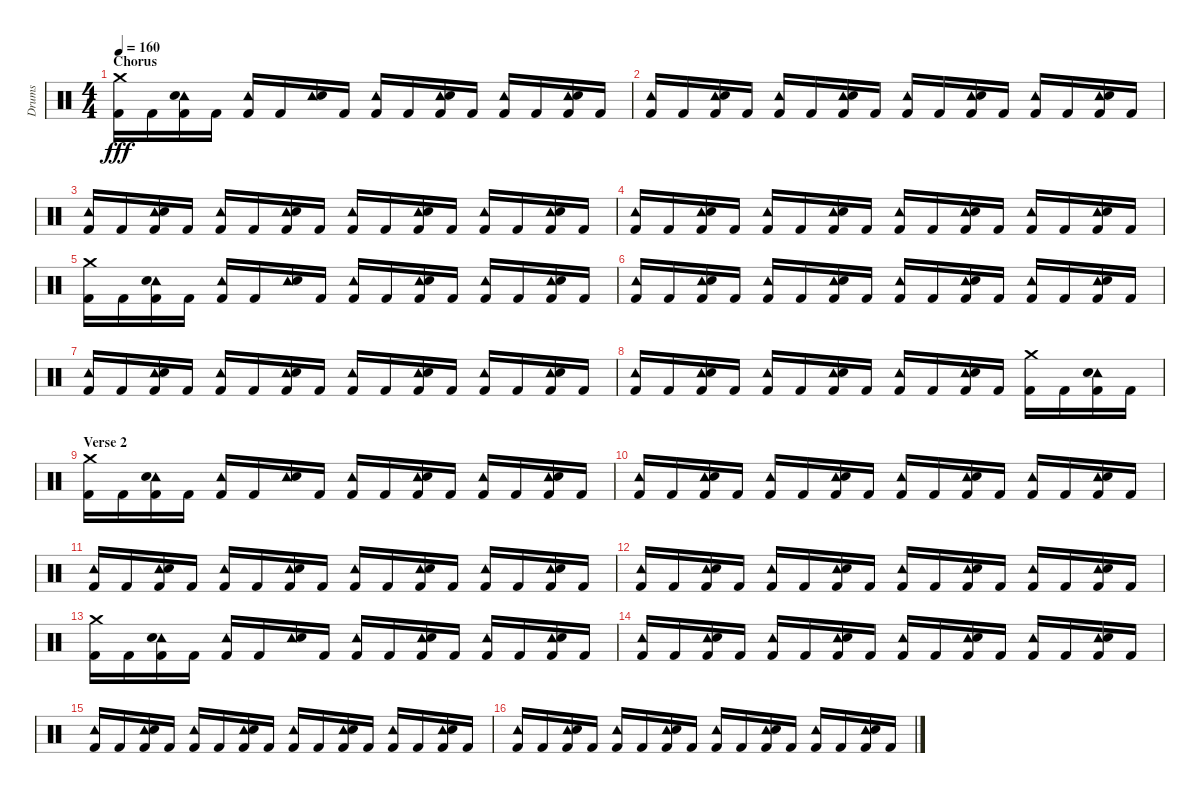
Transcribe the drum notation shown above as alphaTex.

\track ("Drums" "Drums") {instrument percussion}
\staff {score}
\articulation defaults
\ts (4 4)
\section ("" "Chorus")
\tempo 160
\clef neutral
\ks c
("Crash medium (hit)" "Kick (hit) 2").16{dy fff} "Kick (hit) 2".16 ("Kick (hit) 2" "Tambourine (hit)" "Electric Snare (hit)").16 "Kick (hit) 2".16 ("Kick (hit) 2" "Tambourine (hit)").16 "Kick (hit) 2".16 ("Tambourine (hit)" "Electric Snare (hit)").16 "Kick (hit) 2".16 ("Kick (hit) 2" "Tambourine (hit)").16 "Kick (hit) 2".16 ("Kick (hit) 2" "Tambourine (hit)" "Electric Snare (hit)").16 "Kick (hit) 2".16 ("Kick (hit) 2" "Tambourine (hit)").16 "Kick (hit) 2".16 ("Kick (hit) 2" "Tambourine (hit)" "Electric Snare (hit)").16 "Kick (hit) 2".16 |
("Kick (hit) 2" "Tambourine (hit)").16 "Kick (hit) 2".16 ("Kick (hit) 2" "Tambourine (hit)" "Electric Snare (hit)").16 "Kick (hit) 2".16 ("Kick (hit) 2" "Tambourine (hit)").16 "Kick (hit) 2".16 ("Kick (hit) 2" "Tambourine (hit)" "Electric Snare (hit)").16 "Kick (hit) 2".16 ("Kick (hit) 2" "Tambourine (hit)").16 "Kick (hit) 2".16 ("Kick (hit) 2" "Tambourine (hit)" "Electric Snare (hit)").16 "Kick (hit) 2".16 ("Kick (hit) 2" "Tambourine (hit)").16 "Kick (hit) 2".16 ("Kick (hit) 2" "Tambourine (hit)" "Electric Snare (hit)").16 "Kick (hit) 2".16 |
("Kick (hit) 2" "Tambourine (hit)").16 "Kick (hit) 2".16 ("Kick (hit) 2" "Tambourine (hit)" "Electric Snare (hit)").16 "Kick (hit) 2".16 ("Kick (hit) 2" "Tambourine (hit)").16 "Kick (hit) 2".16 ("Kick (hit) 2" "Tambourine (hit)" "Electric Snare (hit)").16 "Kick (hit) 2".16 ("Kick (hit) 2" "Tambourine (hit)").16 "Kick (hit) 2".16 ("Kick (hit) 2" "Tambourine (hit)" "Electric Snare (hit)").16 "Kick (hit) 2".16 ("Kick (hit) 2" "Tambourine (hit)").16 "Kick (hit) 2".16 ("Kick (hit) 2" "Tambourine (hit)" "Electric Snare (hit)").16 "Kick (hit) 2".16 |
("Kick (hit) 2" "Tambourine (hit)").16 "Kick (hit) 2".16 ("Kick (hit) 2" "Tambourine (hit)" "Electric Snare (hit)").16 "Kick (hit) 2".16 ("Kick (hit) 2" "Tambourine (hit)").16 "Kick (hit) 2".16 ("Kick (hit) 2" "Tambourine (hit)" "Electric Snare (hit)").16 "Kick (hit) 2".16 ("Kick (hit) 2" "Tambourine (hit)").16 "Kick (hit) 2".16 ("Kick (hit) 2" "Tambourine (hit)" "Electric Snare (hit)").16 "Kick (hit) 2".16 ("Kick (hit) 2" "Tambourine (hit)").16 "Kick (hit) 2".16 ("Kick (hit) 2" "Tambourine (hit)" "Electric Snare (hit)").16 "Kick (hit) 2".16 |
("Crash medium (hit)" "Kick (hit) 2").16 "Kick (hit) 2".16 ("Kick (hit) 2" "Tambourine (hit)" "Electric Snare (hit)").16 "Kick (hit) 2".16 ("Kick (hit) 2" "Tambourine (hit)").16 "Kick (hit) 2".16 ("Tambourine (hit)" "Electric Snare (hit)").16 "Kick (hit) 2".16 ("Kick (hit) 2" "Tambourine (hit)").16 "Kick (hit) 2".16 ("Kick (hit) 2" "Tambourine (hit)" "Electric Snare (hit)").16 "Kick (hit) 2".16 ("Kick (hit) 2" "Tambourine (hit)").16 "Kick (hit) 2".16 ("Kick (hit) 2" "Tambourine (hit)" "Electric Snare (hit)").16 "Kick (hit) 2".16 |
("Kick (hit) 2" "Tambourine (hit)").16 "Kick (hit) 2".16 ("Kick (hit) 2" "Tambourine (hit)" "Electric Snare (hit)").16 "Kick (hit) 2".16 ("Kick (hit) 2" "Tambourine (hit)").16 "Kick (hit) 2".16 ("Kick (hit) 2" "Tambourine (hit)" "Electric Snare (hit)").16 "Kick (hit) 2".16 ("Kick (hit) 2" "Tambourine (hit)").16 "Kick (hit) 2".16 ("Kick (hit) 2" "Tambourine (hit)" "Electric Snare (hit)").16 "Kick (hit) 2".16 ("Kick (hit) 2" "Tambourine (hit)").16 "Kick (hit) 2".16 ("Kick (hit) 2" "Tambourine (hit)" "Electric Snare (hit)").16 "Kick (hit) 2".16 |
("Kick (hit) 2" "Tambourine (hit)").16 "Kick (hit) 2".16 ("Kick (hit) 2" "Tambourine (hit)" "Electric Snare (hit)").16 "Kick (hit) 2".16 ("Kick (hit) 2" "Tambourine (hit)").16 "Kick (hit) 2".16 ("Kick (hit) 2" "Tambourine (hit)" "Electric Snare (hit)").16 "Kick (hit) 2".16 ("Kick (hit) 2" "Tambourine (hit)").16 "Kick (hit) 2".16 ("Kick (hit) 2" "Tambourine (hit)" "Electric Snare (hit)").16 "Kick (hit) 2".16 ("Kick (hit) 2" "Tambourine (hit)").16 "Kick (hit) 2".16 ("Kick (hit) 2" "Tambourine (hit)" "Electric Snare (hit)").16 "Kick (hit) 2".16 |
("Kick (hit) 2" "Tambourine (hit)").16 "Kick (hit) 2".16 ("Kick (hit) 2" "Tambourine (hit)" "Electric Snare (hit)").16 "Kick (hit) 2".16 ("Kick (hit) 2" "Tambourine (hit)").16 "Kick (hit) 2".16 ("Kick (hit) 2" "Tambourine (hit)" "Electric Snare (hit)").16 "Kick (hit) 2".16 ("Kick (hit) 2" "Tambourine (hit)").16 "Kick (hit) 2".16 ("Kick (hit) 2" "Tambourine (hit)" "Electric Snare (hit)").16 "Kick (hit) 2".16 ("Crash medium (hit)" "Kick (hit) 2").16 "Kick (hit) 2".16 ("Kick (hit) 2" "Tambourine (hit)" "Electric Snare (hit)").16 "Kick (hit) 2".16 |
\section ("" "Verse 2")
("Crash medium (hit)" "Kick (hit) 2").16 "Kick (hit) 2".16 ("Kick (hit) 2" "Tambourine (hit)" "Electric Snare (hit)").16 "Kick (hit) 2".16 ("Kick (hit) 2" "Tambourine (hit)").16 "Kick (hit) 2".16 ("Tambourine (hit)" "Electric Snare (hit)").16 "Kick (hit) 2".16 ("Kick (hit) 2" "Tambourine (hit)").16 "Kick (hit) 2".16 ("Kick (hit) 2" "Tambourine (hit)" "Electric Snare (hit)").16 "Kick (hit) 2".16 ("Kick (hit) 2" "Tambourine (hit)").16 "Kick (hit) 2".16 ("Kick (hit) 2" "Tambourine (hit)" "Electric Snare (hit)").16 "Kick (hit) 2".16 |
("Kick (hit) 2" "Tambourine (hit)").16 "Kick (hit) 2".16 ("Kick (hit) 2" "Tambourine (hit)" "Electric Snare (hit)").16 "Kick (hit) 2".16 ("Kick (hit) 2" "Tambourine (hit)").16 "Kick (hit) 2".16 ("Kick (hit) 2" "Tambourine (hit)" "Electric Snare (hit)").16 "Kick (hit) 2".16 ("Kick (hit) 2" "Tambourine (hit)").16 "Kick (hit) 2".16 ("Kick (hit) 2" "Tambourine (hit)" "Electric Snare (hit)").16 "Kick (hit) 2".16 ("Kick (hit) 2" "Tambourine (hit)").16 "Kick (hit) 2".16 ("Kick (hit) 2" "Tambourine (hit)" "Electric Snare (hit)").16 "Kick (hit) 2".16 |
("Kick (hit) 2" "Tambourine (hit)").16 "Kick (hit) 2".16 ("Kick (hit) 2" "Tambourine (hit)" "Electric Snare (hit)").16 "Kick (hit) 2".16 ("Kick (hit) 2" "Tambourine (hit)").16 "Kick (hit) 2".16 ("Kick (hit) 2" "Tambourine (hit)" "Electric Snare (hit)").16 "Kick (hit) 2".16 ("Kick (hit) 2" "Tambourine (hit)").16 "Kick (hit) 2".16 ("Kick (hit) 2" "Tambourine (hit)" "Electric Snare (hit)").16 "Kick (hit) 2".16 ("Kick (hit) 2" "Tambourine (hit)").16 "Kick (hit) 2".16 ("Kick (hit) 2" "Tambourine (hit)" "Electric Snare (hit)").16 "Kick (hit) 2".16 |
("Kick (hit) 2" "Tambourine (hit)").16 "Kick (hit) 2".16 ("Kick (hit) 2" "Tambourine (hit)" "Electric Snare (hit)").16 "Kick (hit) 2".16 ("Kick (hit) 2" "Tambourine (hit)").16 "Kick (hit) 2".16 ("Kick (hit) 2" "Tambourine (hit)" "Electric Snare (hit)").16 "Kick (hit) 2".16 ("Kick (hit) 2" "Tambourine (hit)").16 "Kick (hit) 2".16 ("Kick (hit) 2" "Tambourine (hit)" "Electric Snare (hit)").16 "Kick (hit) 2".16 ("Kick (hit) 2" "Tambourine (hit)").16 "Kick (hit) 2".16 ("Kick (hit) 2" "Tambourine (hit)" "Electric Snare (hit)").16 "Kick (hit) 2".16 |
("Crash medium (hit)" "Kick (hit) 2").16 "Kick (hit) 2".16 ("Kick (hit) 2" "Tambourine (hit)" "Electric Snare (hit)").16 "Kick (hit) 2".16 ("Kick (hit) 2" "Tambourine (hit)").16 "Kick (hit) 2".16 ("Tambourine (hit)" "Electric Snare (hit)").16 "Kick (hit) 2".16 ("Kick (hit) 2" "Tambourine (hit)").16 "Kick (hit) 2".16 ("Kick (hit) 2" "Tambourine (hit)" "Electric Snare (hit)").16 "Kick (hit) 2".16 ("Kick (hit) 2" "Tambourine (hit)").16 "Kick (hit) 2".16 ("Kick (hit) 2" "Tambourine (hit)" "Electric Snare (hit)").16 "Kick (hit) 2".16 |
("Kick (hit) 2" "Tambourine (hit)").16 "Kick (hit) 2".16 ("Kick (hit) 2" "Tambourine (hit)" "Electric Snare (hit)").16 "Kick (hit) 2".16 ("Kick (hit) 2" "Tambourine (hit)").16 "Kick (hit) 2".16 ("Kick (hit) 2" "Tambourine (hit)" "Electric Snare (hit)").16 "Kick (hit) 2".16 ("Kick (hit) 2" "Tambourine (hit)").16 "Kick (hit) 2".16 ("Kick (hit) 2" "Tambourine (hit)" "Electric Snare (hit)").16 "Kick (hit) 2".16 ("Kick (hit) 2" "Tambourine (hit)").16 "Kick (hit) 2".16 ("Kick (hit) 2" "Tambourine (hit)" "Electric Snare (hit)").16 "Kick (hit) 2".16 |
("Kick (hit) 2" "Tambourine (hit)").16 "Kick (hit) 2".16 ("Kick (hit) 2" "Tambourine (hit)" "Electric Snare (hit)").16 "Kick (hit) 2".16 ("Kick (hit) 2" "Tambourine (hit)").16 "Kick (hit) 2".16 ("Kick (hit) 2" "Tambourine (hit)" "Electric Snare (hit)").16 "Kick (hit) 2".16 ("Kick (hit) 2" "Tambourine (hit)").16 "Kick (hit) 2".16 ("Kick (hit) 2" "Tambourine (hit)" "Electric Snare (hit)").16 "Kick (hit) 2".16 ("Kick (hit) 2" "Tambourine (hit)").16 "Kick (hit) 2".16 ("Kick (hit) 2" "Tambourine (hit)" "Electric Snare (hit)").16 "Kick (hit) 2".16 |
("Kick (hit) 2" "Tambourine (hit)").16 "Kick (hit) 2".16 ("Kick (hit) 2" "Tambourine (hit)" "Electric Snare (hit)").16 "Kick (hit) 2".16 ("Kick (hit) 2" "Tambourine (hit)").16 "Kick (hit) 2".16 ("Kick (hit) 2" "Tambourine (hit)" "Electric Snare (hit)").16 "Kick (hit) 2".16 ("Kick (hit) 2" "Tambourine (hit)").16 "Kick (hit) 2".16 ("Kick (hit) 2" "Tambourine (hit)" "Electric Snare (hit)").16 "Kick (hit) 2".16 ("Kick (hit) 2" "Tambourine (hit)").16 "Kick (hit) 2".16 ("Kick (hit) 2" "Tambourine (hit)" "Electric Snare (hit)").16 "Kick (hit) 2".16
